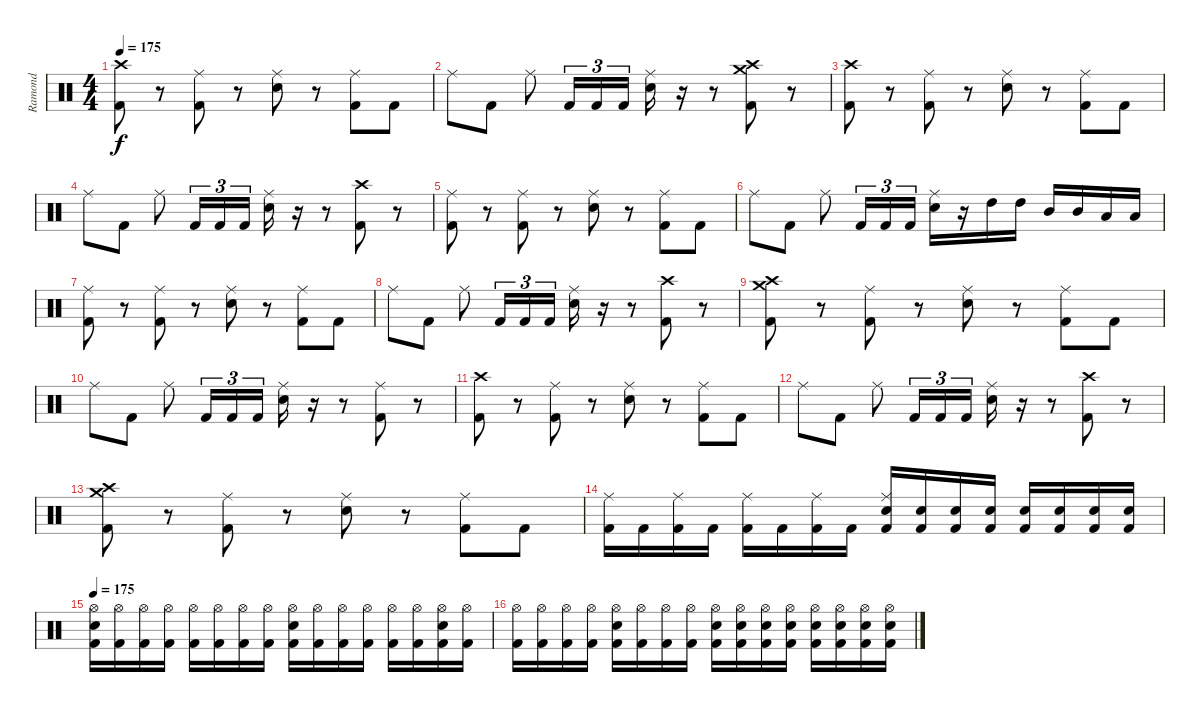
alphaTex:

\track ("Ramond" "Ramond") {instrument percussion}
\staff {score}
\articulation defaults
\ts (4 4)
\tempo 175
\clef neutral
\ks c
("Crash high (hit)" "Kick (hit) 2").8{dy f} r.8 ("Ride (middle)" "Kick (hit) 2").8 r.8 ("Ride (middle)" "Electric Snare (hit)").8 r.8 ("Ride (middle)" "Kick (hit) 2").8 "Kick (hit) 2".8 |
"Ride (middle)".8 "Kick (hit) 2".8 "Ride (middle)".8 "Kick (hit) 2".16{tu (3 2)} "Kick (hit) 2".16{tu (3 2)} "Kick (hit) 2".16{tu (3 2)} ("Ride (middle)" "Electric Snare (hit)").16 r.16 r.8 ("Crash high (hit)" "Crash medium (hit)" "Kick (hit) 2").8 r.8 |
("Crash high (hit)" "Kick (hit) 2").8 r.8 ("Ride (middle)" "Kick (hit) 2").8 r.8 ("Ride (middle)" "Electric Snare (hit)").8 r.8 ("Ride (middle)" "Kick (hit) 2").8 "Kick (hit) 2".8 |
"Ride (middle)".8 "Kick (hit) 2".8 "Ride (middle)".8 "Kick (hit) 2".16{tu (3 2)} "Kick (hit) 2".16{tu (3 2)} "Kick (hit) 2".16{tu (3 2)} ("Ride (middle)" "Electric Snare (hit)").16 r.16 r.8 ("Crash high (hit)" "Kick (hit) 2").8 r.8 |
("Ride (middle)" "Kick (hit) 2").8 r.8 ("Ride (middle)" "Kick (hit) 2").8 r.8 ("Ride (middle)" "Electric Snare (hit)").8 r.8 ("Ride (middle)" "Kick (hit) 2").8 "Kick (hit) 2".8 |
"Ride (middle)".8 "Kick (hit) 2".8 "Ride (middle)".8 "Kick (hit) 2".16{tu (3 2)} "Kick (hit) 2".16{tu (3 2)} "Kick (hit) 2".16{tu (3 2)} ("Ride (middle)" "Electric Snare (hit)").16 r.16 "High Tom (hit)".16 "High Tom (hit)".16 "Mid Tom (hit)".16 "Mid Tom (hit)".16 "Low Tom (hit)".16 "Low Tom (hit)".16 |
("Ride (middle)" "Kick (hit) 2").8 r.8 ("Ride (middle)" "Kick (hit) 2").8 r.8 ("Ride (middle)" "Electric Snare (hit)").8 r.8 ("Ride (middle)" "Kick (hit) 2").8 "Kick (hit) 2".8 |
"Ride (middle)".8 "Kick (hit) 2".8 "Ride (middle)".8 "Kick (hit) 2".16{tu (3 2)} "Kick (hit) 2".16{tu (3 2)} "Kick (hit) 2".16{tu (3 2)} ("Ride (middle)" "Electric Snare (hit)").16 r.16 r.8 ("Crash high (hit)" "Kick (hit) 2").8 r.8 |
("Crash high (hit)" "Crash medium (hit)" "Kick (hit) 2").8 r.8 ("Ride (middle)" "Kick (hit) 2").8 r.8 ("Ride (middle)" "Electric Snare (hit)").8 r.8 ("Ride (middle)" "Kick (hit) 2").8 "Kick (hit) 2".8 |
"Ride (middle)".8 "Kick (hit) 2".8 "Ride (middle)".8 "Kick (hit) 2".16{tu (3 2)} "Kick (hit) 2".16{tu (3 2)} "Kick (hit) 2".16{tu (3 2)} ("Ride (middle)" "Electric Snare (hit)").16 r.16 r.8 ("Ride (middle)" "Kick (hit) 2").8 r.8 |
("Crash high (hit)" "Kick (hit) 2").8 r.8 ("Ride (middle)" "Kick (hit) 2").8 r.8 ("Ride (middle)" "Electric Snare (hit)").8 r.8 ("Ride (middle)" "Kick (hit) 2").8 "Kick (hit) 2".8 |
"Ride (middle)".8 "Kick (hit) 2".8 "Ride (middle)".8 "Kick (hit) 2".16{tu (3 2)} "Kick (hit) 2".16{tu (3 2)} "Kick (hit) 2".16{tu (3 2)} ("Ride (middle)" "Electric Snare (hit)").16 r.16 r.8 ("Crash high (hit)" "Kick (hit) 2").8 r.8 |
("Crash high (hit)" "Crash medium (hit)" "Kick (hit) 2").8 r.8 ("Ride (middle)" "Kick (hit) 2").8 r.8 ("Ride (middle)" "Electric Snare (hit)").8 r.8 ("Ride (middle)" "Kick (hit) 2").8 "Kick (hit) 2".8 |
("Ride (middle)" "Kick (hit) 2").16 "Kick (hit) 2".16 ("Ride (middle)" "Kick (hit) 2").16 "Kick (hit) 2".16 ("Ride (middle)" "Kick (hit) 2").16 "Kick (hit) 2".16 ("Ride (middle)" "Kick (hit) 2").16 "Kick (hit) 2".16 ("Ride (middle)" "Electric Snare (hit)" "Kick (hit) 2").16 ("Electric Snare (hit)" "Kick (hit) 2").16 ("Electric Snare (hit)" "Kick (hit) 2").16 ("Electric Snare (hit)" "Kick (hit) 2").16 ("Electric Snare (hit)" "Kick (hit) 2").16 ("Electric Snare (hit)" "Kick (hit) 2").16 ("Electric Snare (hit)" "Kick (hit) 2").16 ("Electric Snare (hit)" "Kick (hit) 2").16 |
\tempo 175
("Hi-Hat (open)" "Electric Snare (hit)" "Kick (hit) 2").16 ("Hi-Hat (open)" "Kick (hit) 2").16 ("Hi-Hat (open)" "Kick (hit) 2").16 ("Hi-Hat (open)" "Kick (hit) 2").16 ("Hi-Hat (open)" "Kick (hit) 2").16 ("Hi-Hat (open)" "Kick (hit) 2").16 ("Hi-Hat (open)" "Kick (hit) 2").16 ("Hi-Hat (open)" "Kick (hit) 2").16 ("Hi-Hat (open)" "Electric Snare (hit)" "Kick (hit) 2").16 ("Hi-Hat (open)" "Kick (hit) 2").16 ("Hi-Hat (open)" "Kick (hit) 2").16 ("Hi-Hat (open)" "Kick (hit) 2").16 ("Hi-Hat (open)" "Kick (hit) 2").16 ("Hi-Hat (open)" "Kick (hit) 2").16 ("Hi-Hat (open)" "Electric Snare (hit)" "Kick (hit) 2").16 ("Hi-Hat (open)" "Kick (hit) 2").16 |
("Hi-Hat (open)" "Kick (hit) 2").16 ("Hi-Hat (open)" "Kick (hit) 2").16 ("Hi-Hat (open)" "Kick (hit) 2").16 ("Hi-Hat (open)" "Kick (hit) 2").16 ("Hi-Hat (open)" "Electric Snare (hit)" "Kick (hit) 2").16 ("Hi-Hat (open)" "Kick (hit) 2").16 ("Hi-Hat (open)" "Kick (hit) 2").16 ("Hi-Hat (open)" "Kick (hit) 2").16 ("Hi-Hat (open)" "Electric Snare (hit)" "Kick (hit) 2").16 ("Hi-Hat (open)" "Electric Snare (hit)" "Kick (hit) 2").16 ("Hi-Hat (open)" "Electric Snare (hit)" "Kick (hit) 2").16 ("Hi-Hat (open)" "Electric Snare (hit)" "Kick (hit) 2").16 ("Hi-Hat (open)" "Electric Snare (hit)" "Kick (hit) 2").16 ("Hi-Hat (open)" "Electric Snare (hit)" "Kick (hit) 2").16 ("Hi-Hat (open)" "Electric Snare (hit)" "Kick (hit) 2").16 ("Hi-Hat (open)" "Electric Snare (hit)" "Kick (hit) 2").16
